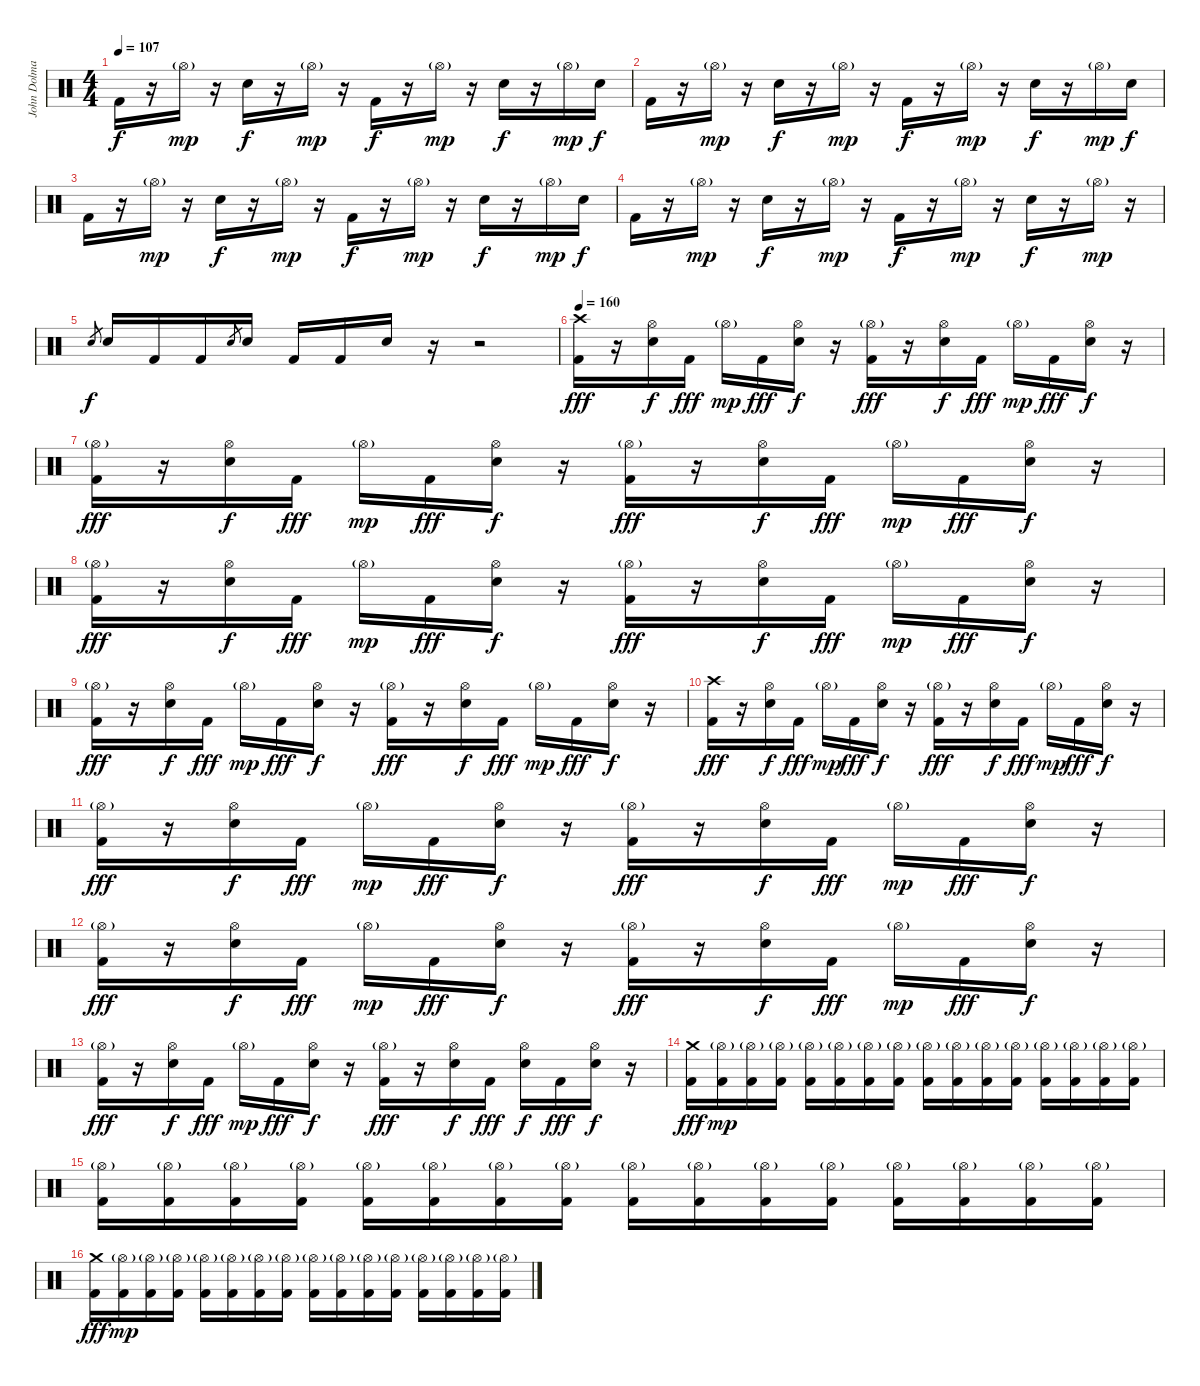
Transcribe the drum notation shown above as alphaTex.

\track ("John Dolmayan(Drums)" "John Dolma") {instrument percussion}
\staff {score}
\articulation defaults
\ts (4 4)
\tempo 107
\clef neutral
\ks c "Kick (hit) 2".16{dy f}
r.16 "Hi-Hat (open)"{g}.16{dy mp} r.16 "Electric Snare (hit)".16{dy f} r.16 "Hi-Hat (open)"{g}.16{dy mp} r.16 "Kick (hit) 2".16{dy f} r.16 "Hi-Hat (open)"{g}.16{dy mp} r.16 "Electric Snare (hit)".16{dy f} r.16 "Hi-Hat (open)"{g}.16{dy mp} "Electric Snare (hit)".16{dy f} |
"Kick (hit) 2".16 r.16 "Hi-Hat (open)"{g}.16{dy mp} r.16 "Electric Snare (hit)".16{dy f} r.16 "Hi-Hat (open)"{g}.16{dy mp} r.16 "Kick (hit) 2".16{dy f} r.16 "Hi-Hat (open)"{g}.16{dy mp} r.16 "Electric Snare (hit)".16{dy f} r.16 "Hi-Hat (open)"{g}.16{dy mp} "Electric Snare (hit)".16{dy f} |
"Kick (hit) 2".16 r.16 "Hi-Hat (open)"{g}.16{dy mp} r.16 "Electric Snare (hit)".16{dy f} r.16 "Hi-Hat (open)"{g}.16{dy mp} r.16 "Kick (hit) 2".16{dy f} r.16 "Hi-Hat (open)"{g}.16{dy mp} r.16 "Electric Snare (hit)".16{dy f} r.16 "Hi-Hat (open)"{g}.16{dy mp} "Electric Snare (hit)".16{dy f} |
"Kick (hit) 2".16 r.16 "Hi-Hat (open)"{g}.16{dy mp} r.16 "Electric Snare (hit)".16{dy f} r.16 "Hi-Hat (open)"{g}.16{dy mp} r.16 "Kick (hit) 2".16{dy f} r.16 "Hi-Hat (open)"{g}.16{dy mp} r.16 "Electric Snare (hit)".16{dy f} r.16 "Hi-Hat (open)"{g}.16{dy mp} r.16 |
"Electric Snare (hit)".8{gr dy f} "Electric Snare (hit)".16 "Kick (hit) 2".16 "Kick (hit) 2".16 "Electric Snare (hit)".8{gr} "Electric Snare (hit)".16 "Kick (hit) 2".16 "Kick (hit) 2".16 "Electric Snare (hit)".16 r.16 r.2 |
\tempo 160
("Crash high (hit)" "Kick (hit) 2").16{dy fff} r.16 ("Hi-Hat (open)" "Electric Snare (hit)").16{dy f} "Kick (hit) 2".16{dy fff} "Hi-Hat (open)"{g}.16{dy mp} "Kick (hit) 2".16{dy fff} ("Hi-Hat (open)" "Electric Snare (hit)").16{dy f} r.16 ("Hi-Hat (open)"{g} "Kick (hit) 2").16{dy fff} r.16 ("Hi-Hat (open)" "Electric Snare (hit)").16{dy f} "Kick (hit) 2".16{dy fff} "Hi-Hat (open)"{g}.16{dy mp} "Kick (hit) 2".16{dy fff} ("Hi-Hat (open)" "Electric Snare (hit)").16{dy f} r.16 |
("Hi-Hat (open)"{g} "Kick (hit) 2").16{dy fff} r.16 ("Hi-Hat (open)" "Electric Snare (hit)").16{dy f} "Kick (hit) 2".16{dy fff} "Hi-Hat (open)"{g}.16{dy mp} "Kick (hit) 2".16{dy fff} ("Hi-Hat (open)" "Electric Snare (hit)").16{dy f} r.16 ("Hi-Hat (open)"{g} "Kick (hit) 2").16{dy fff} r.16 ("Hi-Hat (open)" "Electric Snare (hit)").16{dy f} "Kick (hit) 2".16{dy fff} "Hi-Hat (open)"{g}.16{dy mp} "Kick (hit) 2".16{dy fff} ("Hi-Hat (open)" "Electric Snare (hit)").16{dy f} r.16 |
("Hi-Hat (open)"{g} "Kick (hit) 2").16{dy fff} r.16 ("Hi-Hat (open)" "Electric Snare (hit)").16{dy f} "Kick (hit) 2".16{dy fff} "Hi-Hat (open)"{g}.16{dy mp} "Kick (hit) 2".16{dy fff} ("Hi-Hat (open)" "Electric Snare (hit)").16{dy f} r.16 ("Hi-Hat (open)"{g} "Kick (hit) 2").16{dy fff} r.16 ("Hi-Hat (open)" "Electric Snare (hit)").16{dy f} "Kick (hit) 2".16{dy fff} "Hi-Hat (open)"{g}.16{dy mp} "Kick (hit) 2".16{dy fff} ("Hi-Hat (open)" "Electric Snare (hit)").16{dy f} r.16 |
("Hi-Hat (open)"{g} "Kick (hit) 2").16{dy fff} r.16 ("Hi-Hat (open)" "Electric Snare (hit)").16{dy f} "Kick (hit) 2".16{dy fff} "Hi-Hat (open)"{g}.16{dy mp} "Kick (hit) 2".16{dy fff} ("Hi-Hat (open)" "Electric Snare (hit)").16{dy f} r.16 ("Hi-Hat (open)"{g} "Kick (hit) 2").16{dy fff} r.16 ("Hi-Hat (open)" "Electric Snare (hit)").16{dy f} "Kick (hit) 2".16{dy fff} "Hi-Hat (open)"{g}.16{dy mp} "Kick (hit) 2".16{dy fff} ("Hi-Hat (open)" "Electric Snare (hit)").16{dy f} r.16 |
("Crash high (hit)" "Kick (hit) 2").16{dy fff} r.16 ("Hi-Hat (open)" "Electric Snare (hit)").16{dy f} "Kick (hit) 2".16{dy fff} "Hi-Hat (open)"{g}.16{dy mp} "Kick (hit) 2".16{dy fff} ("Hi-Hat (open)" "Electric Snare (hit)").16{dy f} r.16 ("Hi-Hat (open)"{g} "Kick (hit) 2").16{dy fff} r.16 ("Hi-Hat (open)" "Electric Snare (hit)").16{dy f} "Kick (hit) 2".16{dy fff} "Hi-Hat (open)"{g}.16{dy mp} "Kick (hit) 2".16{dy fff} ("Hi-Hat (open)" "Electric Snare (hit)").16{dy f} r.16 |
("Hi-Hat (open)"{g} "Kick (hit) 2").16{dy fff} r.16 ("Hi-Hat (open)" "Electric Snare (hit)").16{dy f} "Kick (hit) 2".16{dy fff} "Hi-Hat (open)"{g}.16{dy mp} "Kick (hit) 2".16{dy fff} ("Hi-Hat (open)" "Electric Snare (hit)").16{dy f} r.16 ("Hi-Hat (open)"{g} "Kick (hit) 2").16{dy fff} r.16 ("Hi-Hat (open)" "Electric Snare (hit)").16{dy f} "Kick (hit) 2".16{dy fff} "Hi-Hat (open)"{g}.16{dy mp} "Kick (hit) 2".16{dy fff} ("Hi-Hat (open)" "Electric Snare (hit)").16{dy f} r.16 |
("Hi-Hat (open)"{g} "Kick (hit) 2").16{dy fff} r.16 ("Hi-Hat (open)" "Electric Snare (hit)").16{dy f} "Kick (hit) 2".16{dy fff} "Hi-Hat (open)"{g}.16{dy mp} "Kick (hit) 2".16{dy fff} ("Hi-Hat (open)" "Electric Snare (hit)").16{dy f} r.16 ("Hi-Hat (open)"{g} "Kick (hit) 2").16{dy fff} r.16 ("Hi-Hat (open)" "Electric Snare (hit)").16{dy f} "Kick (hit) 2".16{dy fff} "Hi-Hat (open)"{g}.16{dy mp} "Kick (hit) 2".16{dy fff} ("Hi-Hat (open)" "Electric Snare (hit)").16{dy f} r.16 |
("Hi-Hat (open)"{g} "Kick (hit) 2").16{dy fff} r.16 ("Hi-Hat (open)" "Electric Snare (hit)").16{dy f} "Kick (hit) 2".16{dy fff} "Hi-Hat (open)"{g}.16{dy mp} "Kick (hit) 2".16{dy fff} ("Hi-Hat (open)" "Electric Snare (hit)").16{dy f} r.16 ("Hi-Hat (open)"{g} "Kick (hit) 2").16{dy fff} r.16 ("Hi-Hat (open)" "Electric Snare (hit)").16{dy f} "Kick (hit) 2".16{dy fff} ("Hi-Hat (open)" "Electric Snare (hit)").16{dy f} "Kick (hit) 2".16{dy fff} ("Hi-Hat (open)" "Electric Snare (hit)").16{dy f} r.16 |
("Crash medium (hit)" "Kick (hit) 2").16{dy fff} ("Hi-Hat (open)"{g} "Kick (hit) 2").16{dy mp} ("Hi-Hat (open)"{g} "Kick (hit) 2").16 ("Hi-Hat (open)"{g} "Kick (hit) 2").16 ("Hi-Hat (open)"{g} "Kick (hit) 2").16 ("Hi-Hat (open)"{g} "Kick (hit) 2").16 ("Hi-Hat (open)"{g} "Kick (hit) 2").16 ("Hi-Hat (open)"{g} "Kick (hit) 2").16 ("Hi-Hat (open)"{g} "Kick (hit) 2").16 ("Hi-Hat (open)"{g} "Kick (hit) 2").16 ("Hi-Hat (open)"{g} "Kick (hit) 2").16 ("Hi-Hat (open)"{g} "Kick (hit) 2").16 ("Hi-Hat (open)"{g} "Kick (hit) 2").16 ("Hi-Hat (open)"{g} "Kick (hit) 2").16 ("Hi-Hat (open)"{g} "Kick (hit) 2").16 ("Hi-Hat (open)"{g} "Kick (hit) 2").16 |
("Hi-Hat (open)"{g} "Kick (hit) 2").16 ("Hi-Hat (open)"{g} "Kick (hit) 2").16 ("Hi-Hat (open)"{g} "Kick (hit) 2").16 ("Hi-Hat (open)"{g} "Kick (hit) 2").16 ("Hi-Hat (open)"{g} "Kick (hit) 2").16 ("Hi-Hat (open)"{g} "Kick (hit) 2").16 ("Hi-Hat (open)"{g} "Kick (hit) 2").16 ("Hi-Hat (open)"{g} "Kick (hit) 2").16 ("Hi-Hat (open)"{g} "Kick (hit) 2").16 ("Hi-Hat (open)"{g} "Kick (hit) 2").16 ("Hi-Hat (open)"{g} "Kick (hit) 2").16 ("Hi-Hat (open)"{g} "Kick (hit) 2").16 ("Hi-Hat (open)"{g} "Kick (hit) 2").16 ("Hi-Hat (open)"{g} "Kick (hit) 2").16 ("Hi-Hat (open)"{g} "Kick (hit) 2").16 ("Hi-Hat (open)"{g} "Kick (hit) 2").16 |
("Crash medium (hit)" "Kick (hit) 2").16{dy fff} ("Hi-Hat (open)"{g} "Kick (hit) 2").16{dy mp} ("Hi-Hat (open)"{g} "Kick (hit) 2").16 ("Hi-Hat (open)"{g} "Kick (hit) 2").16 ("Hi-Hat (open)"{g} "Kick (hit) 2").16 ("Hi-Hat (open)"{g} "Kick (hit) 2").16 ("Hi-Hat (open)"{g} "Kick (hit) 2").16 ("Hi-Hat (open)"{g} "Kick (hit) 2").16 ("Hi-Hat (open)"{g} "Kick (hit) 2").16 ("Hi-Hat (open)"{g} "Kick (hit) 2").16 ("Hi-Hat (open)"{g} "Kick (hit) 2").16 ("Hi-Hat (open)"{g} "Kick (hit) 2").16 ("Hi-Hat (open)"{g} "Kick (hit) 2").16 ("Hi-Hat (open)"{g} "Kick (hit) 2").16 ("Hi-Hat (open)"{g} "Kick (hit) 2").16 ("Hi-Hat (open)"{g} "Kick (hit) 2").16
